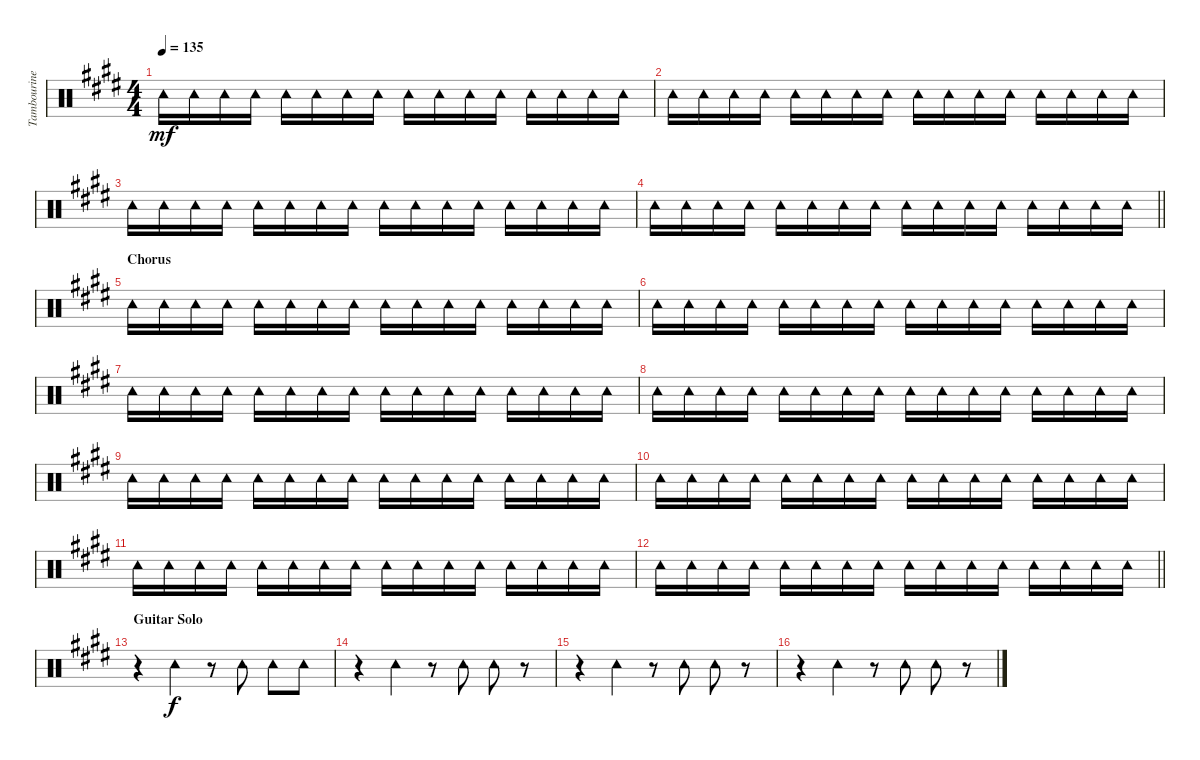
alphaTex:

\track ("Tambourine" "Tambourine") {instrument percussion}
\staff {score}
\articulation defaults
\ts (4 4)
\tempo 135
\clef neutral
\ks e "Tambourine (hit)".16{dy mf} "Tambourine (hit)".16 "Tambourine (hit)".16 "Tambourine (hit)".16 "Tambourine (hit)".16 "Tambourine (hit)".16 "Tambourine (hit)".16 "Tambourine (hit)".16 "Tambourine (hit)".16 "Tambourine (hit)".16 "Tambourine (hit)".16 "Tambourine (hit)".16 "Tambourine (hit)".16 "Tambourine (hit)".16 "Tambourine (hit)".16 "Tambourine (hit)".16
|
"Tambourine (hit)".16 "Tambourine (hit)".16 "Tambourine (hit)".16 "Tambourine (hit)".16 "Tambourine (hit)".16 "Tambourine (hit)".16 "Tambourine (hit)".16 "Tambourine (hit)".16 "Tambourine (hit)".16 "Tambourine (hit)".16 "Tambourine (hit)".16 "Tambourine (hit)".16 "Tambourine (hit)".16 "Tambourine (hit)".16 "Tambourine (hit)".16 "Tambourine (hit)".16 |
"Tambourine (hit)".16 "Tambourine (hit)".16 "Tambourine (hit)".16 "Tambourine (hit)".16 "Tambourine (hit)".16 "Tambourine (hit)".16 "Tambourine (hit)".16 "Tambourine (hit)".16 "Tambourine (hit)".16 "Tambourine (hit)".16 "Tambourine (hit)".16 "Tambourine (hit)".16 "Tambourine (hit)".16 "Tambourine (hit)".16 "Tambourine (hit)".16 "Tambourine (hit)".16 |
\barLineRight lightlight "Tambourine (hit)".16 "Tambourine (hit)".16 "Tambourine (hit)".16 "Tambourine (hit)".16 "Tambourine (hit)".16 "Tambourine (hit)".16 "Tambourine (hit)".16 "Tambourine (hit)".16 "Tambourine (hit)".16 "Tambourine (hit)".16 "Tambourine (hit)".16 "Tambourine (hit)".16 "Tambourine (hit)".16 "Tambourine (hit)".16 "Tambourine (hit)".16 "Tambourine (hit)".16
|
\section ("" "Chorus")
"Tambourine (hit)".16 "Tambourine (hit)".16 "Tambourine (hit)".16 "Tambourine (hit)".16 "Tambourine (hit)".16 "Tambourine (hit)".16 "Tambourine (hit)".16 "Tambourine (hit)".16 "Tambourine (hit)".16 "Tambourine (hit)".16 "Tambourine (hit)".16 "Tambourine (hit)".16 "Tambourine (hit)".16 "Tambourine (hit)".16 "Tambourine (hit)".16 "Tambourine (hit)".16 |
"Tambourine (hit)".16 "Tambourine (hit)".16 "Tambourine (hit)".16 "Tambourine (hit)".16 "Tambourine (hit)".16 "Tambourine (hit)".16 "Tambourine (hit)".16 "Tambourine (hit)".16 "Tambourine (hit)".16 "Tambourine (hit)".16 "Tambourine (hit)".16 "Tambourine (hit)".16 "Tambourine (hit)".16 "Tambourine (hit)".16 "Tambourine (hit)".16 "Tambourine (hit)".16 |
"Tambourine (hit)".16 "Tambourine (hit)".16 "Tambourine (hit)".16 "Tambourine (hit)".16 "Tambourine (hit)".16 "Tambourine (hit)".16 "Tambourine (hit)".16 "Tambourine (hit)".16 "Tambourine (hit)".16 "Tambourine (hit)".16 "Tambourine (hit)".16 "Tambourine (hit)".16 "Tambourine (hit)".16 "Tambourine (hit)".16 "Tambourine (hit)".16 "Tambourine (hit)".16 |
"Tambourine (hit)".16 "Tambourine (hit)".16 "Tambourine (hit)".16 "Tambourine (hit)".16 "Tambourine (hit)".16 "Tambourine (hit)".16 "Tambourine (hit)".16 "Tambourine (hit)".16 "Tambourine (hit)".16 "Tambourine (hit)".16 "Tambourine (hit)".16 "Tambourine (hit)".16 "Tambourine (hit)".16 "Tambourine (hit)".16 "Tambourine (hit)".16 "Tambourine (hit)".16 |
"Tambourine (hit)".16 "Tambourine (hit)".16 "Tambourine (hit)".16 "Tambourine (hit)".16 "Tambourine (hit)".16 "Tambourine (hit)".16 "Tambourine (hit)".16 "Tambourine (hit)".16 "Tambourine (hit)".16 "Tambourine (hit)".16 "Tambourine (hit)".16 "Tambourine (hit)".16 "Tambourine (hit)".16 "Tambourine (hit)".16 "Tambourine (hit)".16 "Tambourine (hit)".16 |
"Tambourine (hit)".16 "Tambourine (hit)".16 "Tambourine (hit)".16 "Tambourine (hit)".16 "Tambourine (hit)".16 "Tambourine (hit)".16 "Tambourine (hit)".16 "Tambourine (hit)".16 "Tambourine (hit)".16 "Tambourine (hit)".16 "Tambourine (hit)".16 "Tambourine (hit)".16 "Tambourine (hit)".16 "Tambourine (hit)".16 "Tambourine (hit)".16 "Tambourine (hit)".16 |
"Tambourine (hit)".16 "Tambourine (hit)".16 "Tambourine (hit)".16 "Tambourine (hit)".16 "Tambourine (hit)".16 "Tambourine (hit)".16 "Tambourine (hit)".16 "Tambourine (hit)".16 "Tambourine (hit)".16 "Tambourine (hit)".16 "Tambourine (hit)".16 "Tambourine (hit)".16 "Tambourine (hit)".16 "Tambourine (hit)".16 "Tambourine (hit)".16 "Tambourine (hit)".16 |
\barLineRight lightlight "Tambourine (hit)".16 "Tambourine (hit)".16 "Tambourine (hit)".16 "Tambourine (hit)".16 "Tambourine (hit)".16 "Tambourine (hit)".16 "Tambourine (hit)".16 "Tambourine (hit)".16 "Tambourine (hit)".16 "Tambourine (hit)".16 "Tambourine (hit)".16 "Tambourine (hit)".16 "Tambourine (hit)".16 "Tambourine (hit)".16 "Tambourine (hit)".16 "Tambourine (hit)".16
|
\section ("" "Guitar Solo")
r.4 "Tambourine (hit)".4{dy f} r.8 "Tambourine (hit)".8 "Tambourine (hit)".8 "Tambourine (hit)".8 |
r.4 "Tambourine (hit)".4 r.8 "Tambourine (hit)".8 "Tambourine (hit)".8 r.8 |
r.4 "Tambourine (hit)".4 r.8 "Tambourine (hit)".8 "Tambourine (hit)".8 r.8 |
r.4 "Tambourine (hit)".4 r.8 "Tambourine (hit)".8 "Tambourine (hit)".8 r.8
